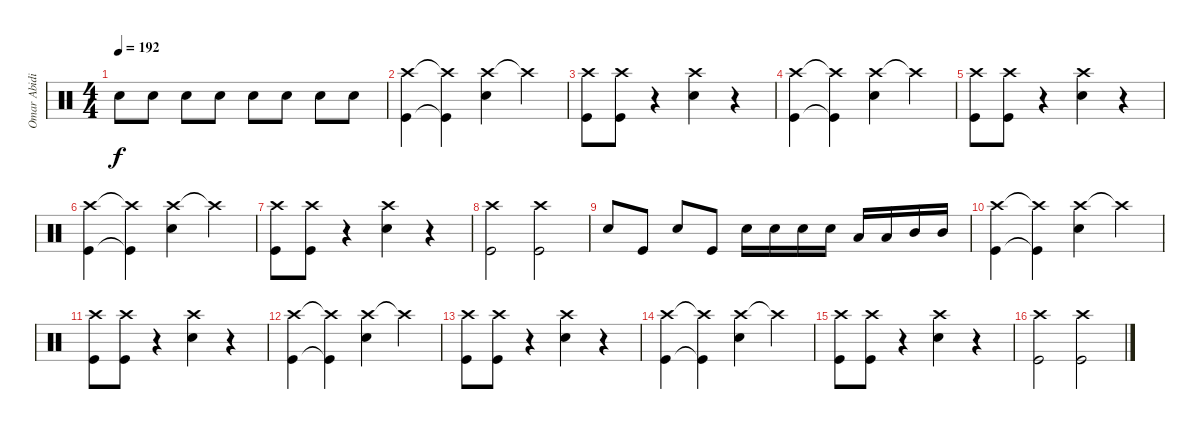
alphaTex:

\track ("Omar Abidi" "Omar Abidi") {instrument percussion}
\staff {score}
\articulation defaults
\ts (4 4)
\tempo 192
\clef neutral
\ks c "Snare (hit) 2".8{dy f} "Snare (hit) 2".8 "Snare (hit) 2".8 "Snare (hit) 2".8 "Snare (hit) 2".8 "Snare (hit) 2".8 "Snare (hit) 2".8 "Snare (hit) 2".8
|
("Crash high (hit)" "Kick (hit)").4 ("Crash high (hit)"{t} "Kick (hit)"{t}).4 ("Crash high (hit)" "Snare (hit) 2").4 "Crash high (hit)"{t}.4 |
("Crash high (hit)" "Kick (hit)").8 ("Crash high (hit)" "Kick (hit)").8 r.4 ("Crash high (hit)" "Snare (hit) 2").4 r.4 |
("Crash high (hit)" "Kick (hit)").4 ("Crash high (hit)"{t} "Kick (hit)"{t}).4 ("Crash high (hit)" "Snare (hit) 2").4 "Crash high (hit)"{t}.4 |
("Crash high (hit)" "Kick (hit)").8 ("Crash high (hit)" "Kick (hit)").8 r.4 ("Crash high (hit)" "Snare (hit) 2").4 r.4 |
("Crash high (hit)" "Kick (hit)").4 ("Crash high (hit)"{t} "Kick (hit)"{t}).4 ("Crash high (hit)" "Snare (hit) 2").4 "Crash high (hit)"{t}.4 |
("Crash high (hit)" "Kick (hit)").8 ("Crash high (hit)" "Kick (hit)").8 r.4 ("Crash high (hit)" "Snare (hit) 2").4 r.4 |
("Crash high (hit)" "Kick (hit)").2 ("Crash high (hit)" "Kick (hit)").2 |
"Snare (hit) 2".8 "Kick (hit)".8 "Snare (hit) 2".8 "Kick (hit)".8 "Snare (hit) 2".16 "Snare (hit) 2".16 "Snare (hit) 2".16 "Snare (hit) 2".16 "Low Floor Tom (hit)".16 "Low Floor Tom (hit)".16 "Mid Tom (hit)".16 "Mid Tom (hit)".16 |
("Crash high (hit)" "Kick (hit)").4 ("Crash high (hit)"{t} "Kick (hit)"{t}).4 ("Crash high (hit)" "Snare (hit) 2").4 "Crash high (hit)"{t}.4 |
("Crash high (hit)" "Kick (hit)").8 ("Crash high (hit)" "Kick (hit)").8 r.4 ("Crash high (hit)" "Snare (hit) 2").4 r.4 |
("Crash high (hit)" "Kick (hit)").4 ("Crash high (hit)"{t} "Kick (hit)"{t}).4 ("Crash high (hit)" "Snare (hit) 2").4 "Crash high (hit)"{t}.4 |
("Crash high (hit)" "Kick (hit)").8 ("Crash high (hit)" "Kick (hit)").8 r.4 ("Crash high (hit)" "Snare (hit) 2").4 r.4 |
("Crash high (hit)" "Kick (hit)").4 ("Crash high (hit)"{t} "Kick (hit)"{t}).4 ("Crash high (hit)" "Snare (hit) 2").4 "Crash high (hit)"{t}.4 |
("Crash high (hit)" "Kick (hit)").8 ("Crash high (hit)" "Kick (hit)").8 r.4 ("Crash high (hit)" "Snare (hit) 2").4 r.4 |
("Crash high (hit)" "Kick (hit)").2 ("Crash high (hit)" "Kick (hit)").2
